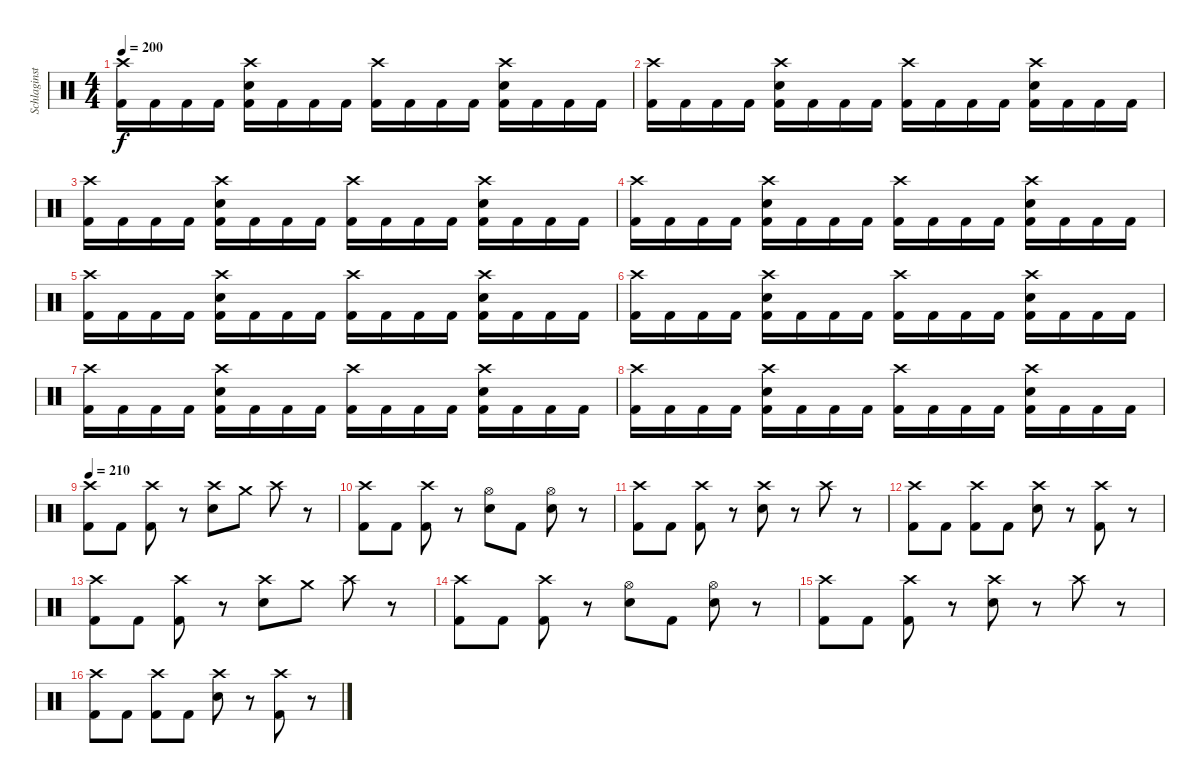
\track ("Schlaginstrumente - Auswahl" "Schlaginst") {instrument percussion}
\staff {score}
\articulation defaults
\ts (4 4)
\tempo 200
\clef neutral
\ks c
("Crash high (hit)" "Kick (hit) 2").16{dy f} "Kick (hit) 2".16 "Kick (hit) 2".16 "Kick (hit) 2".16 ("Crash high (hit)" "Snare (hit) 2" "Kick (hit) 2").16 "Kick (hit) 2".16 "Kick (hit) 2".16 "Kick (hit) 2".16 ("Crash high (hit)" "Kick (hit) 2").16 "Kick (hit) 2".16 "Kick (hit) 2".16 "Kick (hit) 2".16 ("Crash high (hit)" "Snare (hit) 2" "Kick (hit) 2").16 "Kick (hit) 2".16 "Kick (hit) 2".16 "Kick (hit) 2".16 |
("Crash high (hit)" "Kick (hit) 2").16 "Kick (hit) 2".16 "Kick (hit) 2".16 "Kick (hit) 2".16 ("Crash high (hit)" "Snare (hit) 2" "Kick (hit) 2").16 "Kick (hit) 2".16 "Kick (hit) 2".16 "Kick (hit) 2".16 ("Crash high (hit)" "Kick (hit) 2").16 "Kick (hit) 2".16 "Kick (hit) 2".16 "Kick (hit) 2".16 ("Crash high (hit)" "Snare (hit) 2" "Kick (hit) 2").16 "Kick (hit) 2".16 "Kick (hit) 2".16 "Kick (hit) 2".16 |
("Crash high (hit)" "Kick (hit) 2").16 "Kick (hit) 2".16 "Kick (hit) 2".16 "Kick (hit) 2".16 ("Crash high (hit)" "Snare (hit) 2" "Kick (hit) 2").16 "Kick (hit) 2".16 "Kick (hit) 2".16 "Kick (hit) 2".16 ("Crash high (hit)" "Kick (hit) 2").16 "Kick (hit) 2".16 "Kick (hit) 2".16 "Kick (hit) 2".16 ("Crash high (hit)" "Snare (hit) 2" "Kick (hit) 2").16 "Kick (hit) 2".16 "Kick (hit) 2".16 "Kick (hit) 2".16 |
("Crash high (hit)" "Kick (hit) 2").16 "Kick (hit) 2".16 "Kick (hit) 2".16 "Kick (hit) 2".16 ("Crash high (hit)" "Snare (hit) 2" "Kick (hit) 2").16 "Kick (hit) 2".16 "Kick (hit) 2".16 "Kick (hit) 2".16 ("Crash high (hit)" "Kick (hit) 2").16 "Kick (hit) 2".16 "Kick (hit) 2".16 "Kick (hit) 2".16 ("Crash high (hit)" "Snare (hit) 2" "Kick (hit) 2").16 "Kick (hit) 2".16 "Kick (hit) 2".16 "Kick (hit) 2".16 |
("Crash high (hit)" "Kick (hit) 2").16 "Kick (hit) 2".16 "Kick (hit) 2".16 "Kick (hit) 2".16 ("Crash high (hit)" "Snare (hit) 2" "Kick (hit) 2").16 "Kick (hit) 2".16 "Kick (hit) 2".16 "Kick (hit) 2".16 ("Crash high (hit)" "Kick (hit) 2").16 "Kick (hit) 2".16 "Kick (hit) 2".16 "Kick (hit) 2".16 ("Crash high (hit)" "Snare (hit) 2" "Kick (hit) 2").16 "Kick (hit) 2".16 "Kick (hit) 2".16 "Kick (hit) 2".16 |
("Crash high (hit)" "Kick (hit) 2").16 "Kick (hit) 2".16 "Kick (hit) 2".16 "Kick (hit) 2".16 ("Crash high (hit)" "Snare (hit) 2" "Kick (hit) 2").16 "Kick (hit) 2".16 "Kick (hit) 2".16 "Kick (hit) 2".16 ("Crash high (hit)" "Kick (hit) 2").16 "Kick (hit) 2".16 "Kick (hit) 2".16 "Kick (hit) 2".16 ("Crash high (hit)" "Snare (hit) 2" "Kick (hit) 2").16 "Kick (hit) 2".16 "Kick (hit) 2".16 "Kick (hit) 2".16 |
("Crash high (hit)" "Kick (hit) 2").16 "Kick (hit) 2".16 "Kick (hit) 2".16 "Kick (hit) 2".16 ("Crash high (hit)" "Snare (hit) 2" "Kick (hit) 2").16 "Kick (hit) 2".16 "Kick (hit) 2".16 "Kick (hit) 2".16 ("Crash high (hit)" "Kick (hit) 2").16 "Kick (hit) 2".16 "Kick (hit) 2".16 "Kick (hit) 2".16 ("Crash high (hit)" "Snare (hit) 2" "Kick (hit) 2").16 "Kick (hit) 2".16 "Kick (hit) 2".16 "Kick (hit) 2".16 |
("Crash high (hit)" "Kick (hit) 2").16 "Kick (hit) 2".16 "Kick (hit) 2".16 "Kick (hit) 2".16 ("Crash high (hit)" "Snare (hit) 2" "Kick (hit) 2").16 "Kick (hit) 2".16 "Kick (hit) 2".16 "Kick (hit) 2".16 ("Crash high (hit)" "Kick (hit) 2").16 "Kick (hit) 2".16 "Kick (hit) 2".16 "Kick (hit) 2".16 ("Crash high (hit)" "Snare (hit) 2" "Kick (hit) 2").16 "Kick (hit) 2".16 "Kick (hit) 2".16 "Kick (hit) 2".16 |
\tempo 210
("Crash high (hit)" "Kick (hit) 2").8 "Kick (hit) 2".8 ("Crash high (hit)" "Kick (hit) 2").8 r.8 ("Crash high (hit)" "Snare (hit) 2").8 "Crash medium (hit)".8 "Crash high (hit)".8 r.8 |
("Crash high (hit)" "Kick (hit) 2").8 "Kick (hit) 2".8 ("Crash high (hit)" "Kick (hit) 2").8 r.8 ("Hi-Hat (open)" "Snare (hit) 2").8 "Kick (hit) 2".8 ("Hi-Hat (open)" "Snare (hit) 2").8 r.8 |
("Crash high (hit)" "Kick (hit) 2").8 "Kick (hit) 2".8 ("Crash high (hit)" "Kick (hit) 2").8 r.8 ("Crash high (hit)" "Snare (hit) 2").8 r.8 "Crash high (hit)".8 r.8 |
("Crash high (hit)" "Kick (hit) 2").8 "Kick (hit) 2".8 ("Crash high (hit)" "Kick (hit) 2").8 "Kick (hit) 2".8 ("Crash high (hit)" "Snare (hit) 2").8 r.8 ("Crash high (hit)" "Kick (hit) 2").8 r.8 |
("Crash high (hit)" "Kick (hit) 2").8 "Kick (hit) 2".8 ("Crash high (hit)" "Kick (hit) 2").8 r.8 ("Crash high (hit)" "Snare (hit) 2").8 "Crash medium (hit)".8 "Crash high (hit)".8 r.8 |
("Crash high (hit)" "Kick (hit) 2").8 "Kick (hit) 2".8 ("Crash high (hit)" "Kick (hit) 2").8 r.8 ("Hi-Hat (open)" "Snare (hit) 2").8 "Kick (hit) 2".8 ("Hi-Hat (open)" "Snare (hit) 2").8 r.8 |
("Crash high (hit)" "Kick (hit) 2").8 "Kick (hit) 2".8 ("Crash high (hit)" "Kick (hit) 2").8 r.8 ("Crash high (hit)" "Snare (hit) 2").8 r.8 "Crash high (hit)".8 r.8 |
("Crash high (hit)" "Kick (hit) 2").8 "Kick (hit) 2".8 ("Crash high (hit)" "Kick (hit) 2").8 "Kick (hit) 2".8 ("Crash high (hit)" "Snare (hit) 2").8 r.8 ("Crash high (hit)" "Kick (hit) 2").8 r.8
